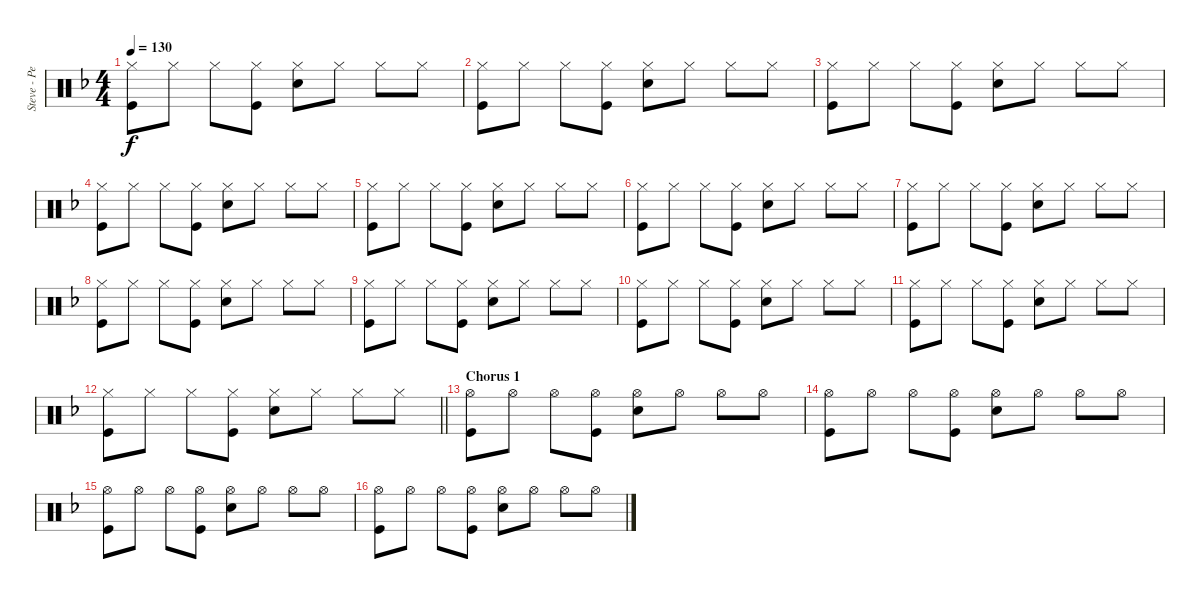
\track ("Steve - Percussion" "Steve - Pe") {instrument percussion}
\staff {score}
\articulation defaults
\ts (4 4)
\tempo 130
\clef neutral
\ks f
("Kick (hit)" "Hi-Hat (closed)").8{dy f} "Hi-Hat (closed)".8 "Hi-Hat (closed)".8 ("Kick (hit)" "Hi-Hat (closed)").8 ("Snare (hit) 2" "Hi-Hat (closed)").8 "Hi-Hat (closed)".8 "Hi-Hat (closed)".8 "Hi-Hat (closed)".8 |
("Kick (hit)" "Hi-Hat (closed)").8 "Hi-Hat (closed)".8 "Hi-Hat (closed)".8 ("Kick (hit)" "Hi-Hat (closed)").8 ("Snare (hit) 2" "Hi-Hat (closed)").8 "Hi-Hat (closed)".8 "Hi-Hat (closed)".8 "Hi-Hat (closed)".8 |
("Kick (hit)" "Hi-Hat (closed)").8 "Hi-Hat (closed)".8 "Hi-Hat (closed)".8 ("Kick (hit)" "Hi-Hat (closed)").8 ("Snare (hit) 2" "Hi-Hat (closed)").8 "Hi-Hat (closed)".8 "Hi-Hat (closed)".8 "Hi-Hat (closed)".8 |
("Kick (hit)" "Hi-Hat (closed)").8 "Hi-Hat (closed)".8 "Hi-Hat (closed)".8 ("Kick (hit)" "Hi-Hat (closed)").8 ("Snare (hit) 2" "Hi-Hat (closed)").8 "Hi-Hat (closed)".8 "Hi-Hat (closed)".8 "Hi-Hat (closed)".8 |
("Kick (hit)" "Hi-Hat (closed)").8 "Hi-Hat (closed)".8 "Hi-Hat (closed)".8 ("Kick (hit)" "Hi-Hat (closed)").8 ("Snare (hit) 2" "Hi-Hat (closed)").8 "Hi-Hat (closed)".8 "Hi-Hat (closed)".8 "Hi-Hat (closed)".8 |
("Kick (hit)" "Hi-Hat (closed)").8 "Hi-Hat (closed)".8 "Hi-Hat (closed)".8 ("Kick (hit)" "Hi-Hat (closed)").8 ("Snare (hit) 2" "Hi-Hat (closed)").8 "Hi-Hat (closed)".8 "Hi-Hat (closed)".8 "Hi-Hat (closed)".8 |
("Kick (hit)" "Hi-Hat (closed)").8 "Hi-Hat (closed)".8 "Hi-Hat (closed)".8 ("Kick (hit)" "Hi-Hat (closed)").8 ("Snare (hit) 2" "Hi-Hat (closed)").8 "Hi-Hat (closed)".8 "Hi-Hat (closed)".8 "Hi-Hat (closed)".8 |
("Kick (hit)" "Hi-Hat (closed)").8 "Hi-Hat (closed)".8 "Hi-Hat (closed)".8 ("Kick (hit)" "Hi-Hat (closed)").8 ("Snare (hit) 2" "Hi-Hat (closed)").8 "Hi-Hat (closed)".8 "Hi-Hat (closed)".8 "Hi-Hat (closed)".8 |
("Kick (hit)" "Hi-Hat (closed)").8 "Hi-Hat (closed)".8 "Hi-Hat (closed)".8 ("Kick (hit)" "Hi-Hat (closed)").8 ("Snare (hit) 2" "Hi-Hat (closed)").8 "Hi-Hat (closed)".8 "Hi-Hat (closed)".8 "Hi-Hat (closed)".8 |
("Kick (hit)" "Hi-Hat (closed)").8 "Hi-Hat (closed)".8 "Hi-Hat (closed)".8 ("Kick (hit)" "Hi-Hat (closed)").8 ("Snare (hit) 2" "Hi-Hat (closed)").8 "Hi-Hat (closed)".8 "Hi-Hat (closed)".8 "Hi-Hat (closed)".8 |
("Kick (hit)" "Hi-Hat (closed)").8 "Hi-Hat (closed)".8 "Hi-Hat (closed)".8 ("Kick (hit)" "Hi-Hat (closed)").8 ("Snare (hit) 2" "Hi-Hat (closed)").8 "Hi-Hat (closed)".8 "Hi-Hat (closed)".8 "Hi-Hat (closed)".8 |
\barLineRight lightlight
("Kick (hit)" "Hi-Hat (closed)").8 "Hi-Hat (closed)".8 "Hi-Hat (closed)".8 ("Kick (hit)" "Hi-Hat (closed)").8 ("Snare (hit) 2" "Hi-Hat (closed)").8 "Hi-Hat (closed)".8 "Hi-Hat (closed)".8 "Hi-Hat (closed)".8 |
\section ("" "Chorus 1")
("Kick (hit)" "Hi-Hat (open)").8 "Hi-Hat (open)".8 "Hi-Hat (open)".8 ("Kick (hit)" "Hi-Hat (open)").8 ("Snare (hit) 2" "Hi-Hat (open)").8 "Hi-Hat (open)".8 "Hi-Hat (open)".8 "Hi-Hat (open)".8 |
("Kick (hit)" "Hi-Hat (open)").8 "Hi-Hat (open)".8 "Hi-Hat (open)".8 ("Kick (hit)" "Hi-Hat (open)").8 ("Snare (hit) 2" "Hi-Hat (open)").8 "Hi-Hat (open)".8 "Hi-Hat (open)".8 "Hi-Hat (open)".8 |
("Kick (hit)" "Hi-Hat (open)").8 "Hi-Hat (open)".8 "Hi-Hat (open)".8 ("Kick (hit)" "Hi-Hat (open)").8 ("Snare (hit) 2" "Hi-Hat (open)").8 "Hi-Hat (open)".8 "Hi-Hat (open)".8 "Hi-Hat (open)".8 |
("Kick (hit)" "Hi-Hat (open)").8 "Hi-Hat (open)".8 "Hi-Hat (open)".8 ("Kick (hit)" "Hi-Hat (open)").8 ("Snare (hit) 2" "Hi-Hat (open)").8 "Hi-Hat (open)".8 "Hi-Hat (open)".8 "Hi-Hat (open)".8
